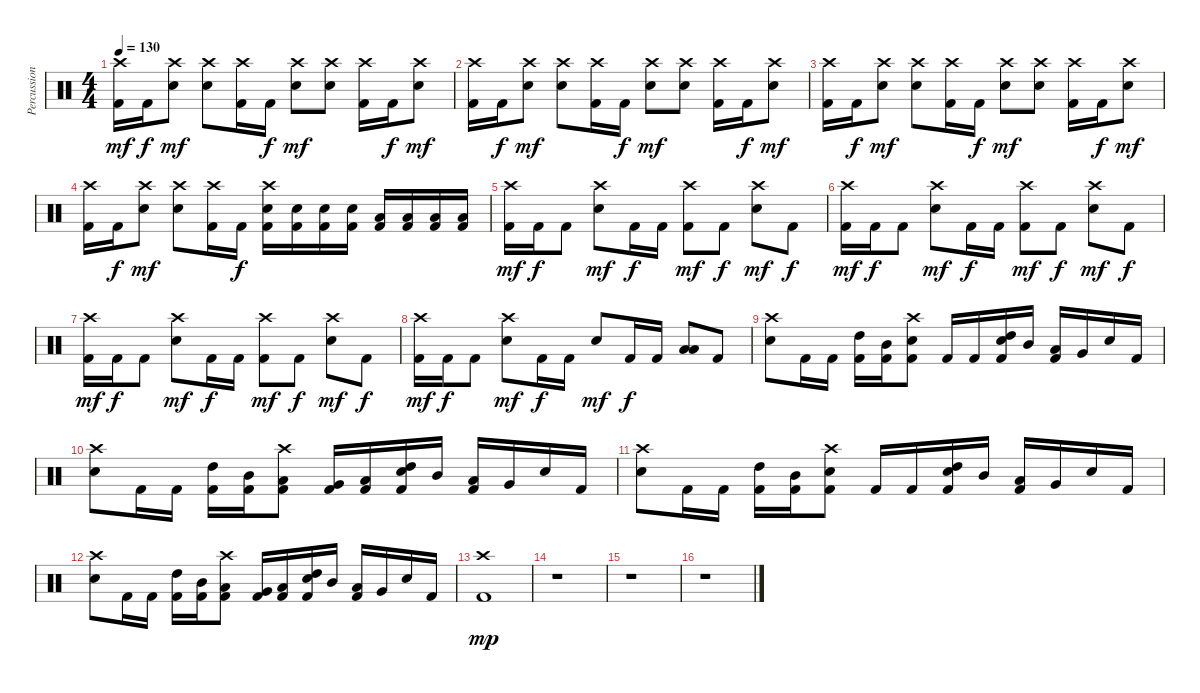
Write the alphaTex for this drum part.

\track ("Percussion" "Percussion") {instrument percussion}
\staff {score}
\articulation defaults
\ts (4 4)
\tempo 130
\clef neutral
\ks c
("Crash high (hit)" "Kick (hit) 2").16{dy mf} "Kick (hit) 2".16{dy f} ("Crash high (hit)" "Electric Snare (hit)").8{dy mf} ("Crash high (hit)" "Electric Snare (hit)").8 ("Crash high (hit)" "Kick (hit) 2").16 "Kick (hit) 2".16{dy f} ("Crash high (hit)" "Electric Snare (hit)").8{dy mf} ("Crash high (hit)" "Electric Snare (hit)").8 ("Crash high (hit)" "Kick (hit) 2").16 "Kick (hit) 2".16{dy f} ("Crash high (hit)" "Electric Snare (hit)").8{dy mf} |
("Crash high (hit)" "Kick (hit) 2").16 "Kick (hit) 2".16{dy f} ("Crash high (hit)" "Electric Snare (hit)").8{dy mf} ("Crash high (hit)" "Electric Snare (hit)").8 ("Crash high (hit)" "Kick (hit) 2").16 "Kick (hit) 2".16{dy f} ("Crash high (hit)" "Electric Snare (hit)").8{dy mf} ("Crash high (hit)" "Electric Snare (hit)").8 ("Crash high (hit)" "Kick (hit) 2").16 "Kick (hit) 2".16{dy f} ("Crash high (hit)" "Electric Snare (hit)").8{dy mf} |
("Crash high (hit)" "Kick (hit) 2").16 "Kick (hit) 2".16{dy f} ("Crash high (hit)" "Electric Snare (hit)").8{dy mf} ("Crash high (hit)" "Electric Snare (hit)").8 ("Crash high (hit)" "Kick (hit) 2").16 "Kick (hit) 2".16{dy f} ("Crash high (hit)" "Electric Snare (hit)").8{dy mf} ("Crash high (hit)" "Electric Snare (hit)").8 ("Crash high (hit)" "Kick (hit) 2").16 "Kick (hit) 2".16{dy f} ("Crash high (hit)" "Electric Snare (hit)").8{dy mf} |
("Crash high (hit)" "Kick (hit) 2").16 "Kick (hit) 2".16{dy f} ("Crash high (hit)" "Electric Snare (hit)").8{dy mf} ("Crash high (hit)" "Electric Snare (hit)").8 ("Crash high (hit)" "Kick (hit) 2").16 "Kick (hit) 2".16{dy f} ("Crash high (hit)" "Electric Snare (hit)" "Kick (hit) 2").16 ("Electric Snare (hit)" "Kick (hit) 2").16 ("Electric Snare (hit)" "Kick (hit) 2").16 ("Electric Snare (hit)" "Kick (hit) 2").16 ("Low Tom (hit)" "Kick (hit) 2").16 ("Low Tom (hit)" "Kick (hit) 2").16 ("Low Tom (hit)" "Kick (hit) 2").16 ("Low Tom (hit)" "Kick (hit) 2").16 |
("Crash high (hit)" "Kick (hit) 2").16{dy mf} "Kick (hit) 2".16{dy f} "Kick (hit) 2".8 ("Crash high (hit)" "Electric Snare (hit)").8{dy mf} "Kick (hit) 2".16{dy f} "Kick (hit) 2".16 ("Crash high (hit)" "Kick (hit) 2").8{dy mf} "Kick (hit) 2".8{dy f} ("Crash high (hit)" "Electric Snare (hit)").8{dy mf} "Kick (hit) 2".8{dy f} |
("Crash high (hit)" "Kick (hit) 2").16{dy mf} "Kick (hit) 2".16{dy f} "Kick (hit) 2".8 ("Crash high (hit)" "Electric Snare (hit)").8{dy mf} "Kick (hit) 2".16{dy f} "Kick (hit) 2".16 ("Crash high (hit)" "Kick (hit) 2").8{dy mf} "Kick (hit) 2".8{dy f} ("Crash high (hit)" "Electric Snare (hit)").8{dy mf} "Kick (hit) 2".8{dy f} |
("Crash high (hit)" "Kick (hit) 2").16{dy mf} "Kick (hit) 2".16{dy f} "Kick (hit) 2".8 ("Crash high (hit)" "Electric Snare (hit)").8{dy mf} "Kick (hit) 2".16{dy f} "Kick (hit) 2".16 ("Crash high (hit)" "Kick (hit) 2").8{dy mf} "Kick (hit) 2".8{dy f} ("Crash high (hit)" "Electric Snare (hit)").8{dy mf} "Kick (hit) 2".8{dy f} |
("Crash high (hit)" "Kick (hit) 2").16{dy mf} "Kick (hit) 2".16{dy f} "Kick (hit) 2".8 ("Crash high (hit)" "Electric Snare (hit)").8{dy mf} "Kick (hit) 2".16{dy f} "Kick (hit) 2".16 "Electric Snare (hit)".8{dy mf} "Kick (hit) 2".16{dy f} "Kick (hit) 2".16 ("Low Tom (hit)" "Low Floor Tom (hit)").8 "Kick (hit) 2".8 |
("Crash high (hit)" "Electric Snare (hit)").8 "Kick (hit) 2".16 "Kick (hit) 2".16 ("High Tom (hit)" "Kick (hit) 2").16 ("Mid Tom (hit)" "Kick (hit) 2").16 ("Crash high (hit)" "Electric Snare (hit)" "Kick (hit) 2").8 "Kick (hit) 2".16 "Kick (hit) 2".16 ("High Tom (hit)" "Electric Snare (hit)" "Kick (hit) 2").16 "Mid Tom (hit)".16 ("Low Tom (hit)" "Kick (hit) 2").16 "Very Low Tom (hit)".16 "Electric Snare (hit)".16 "Kick (hit) 2".16 |
("Crash high (hit)" "Electric Snare (hit)").8 "Kick (hit) 2".16 "Kick (hit) 2".16 ("High Tom (hit)" "Kick (hit) 2").16 ("Mid Tom (hit)" "Kick (hit) 2").16 ("Crash high (hit)" "Low Floor Tom (hit)" "Kick (hit) 2").8 ("Very Low Tom (hit)" "Kick (hit) 2").16 ("Low Tom (hit)" "Kick (hit) 2").16 ("High Tom (hit)" "Electric Snare (hit)" "Kick (hit) 2").16 "Mid Tom (hit)".16 ("Low Tom (hit)" "Kick (hit) 2").16 "Very Low Tom (hit)".16 "Electric Snare (hit)".16 "Kick (hit) 2".16 |
("Crash high (hit)" "Electric Snare (hit)").8 "Kick (hit) 2".16 "Kick (hit) 2".16 ("High Tom (hit)" "Kick (hit) 2").16 ("Mid Tom (hit)" "Kick (hit) 2").16 ("Crash high (hit)" "Electric Snare (hit)" "Kick (hit) 2").8 "Kick (hit) 2".16 "Kick (hit) 2".16 ("High Tom (hit)" "Electric Snare (hit)" "Kick (hit) 2").16 "Mid Tom (hit)".16 ("Low Tom (hit)" "Kick (hit) 2").16 "Very Low Tom (hit)".16 "Electric Snare (hit)".16 "Kick (hit) 2".16 |
("Crash high (hit)" "Electric Snare (hit)").8 "Kick (hit) 2".16 "Kick (hit) 2".16 ("High Tom (hit)" "Kick (hit) 2").16 ("Mid Tom (hit)" "Kick (hit) 2").16 ("Crash high (hit)" "Low Floor Tom (hit)" "Kick (hit) 2").8 ("Very Low Tom (hit)" "Kick (hit) 2").16 ("Low Tom (hit)" "Kick (hit) 2").16 ("High Tom (hit)" "Electric Snare (hit)" "Kick (hit) 2").16 "Mid Tom (hit)".16 ("Low Tom (hit)" "Kick (hit) 2").16 "Very Low Tom (hit)".16 "Electric Snare (hit)".16 "Kick (hit) 2".16 |
("Crash high (hit)" "Kick (hit) 2").1{dy mp} |
r.1 |
r.1 |
r.1
